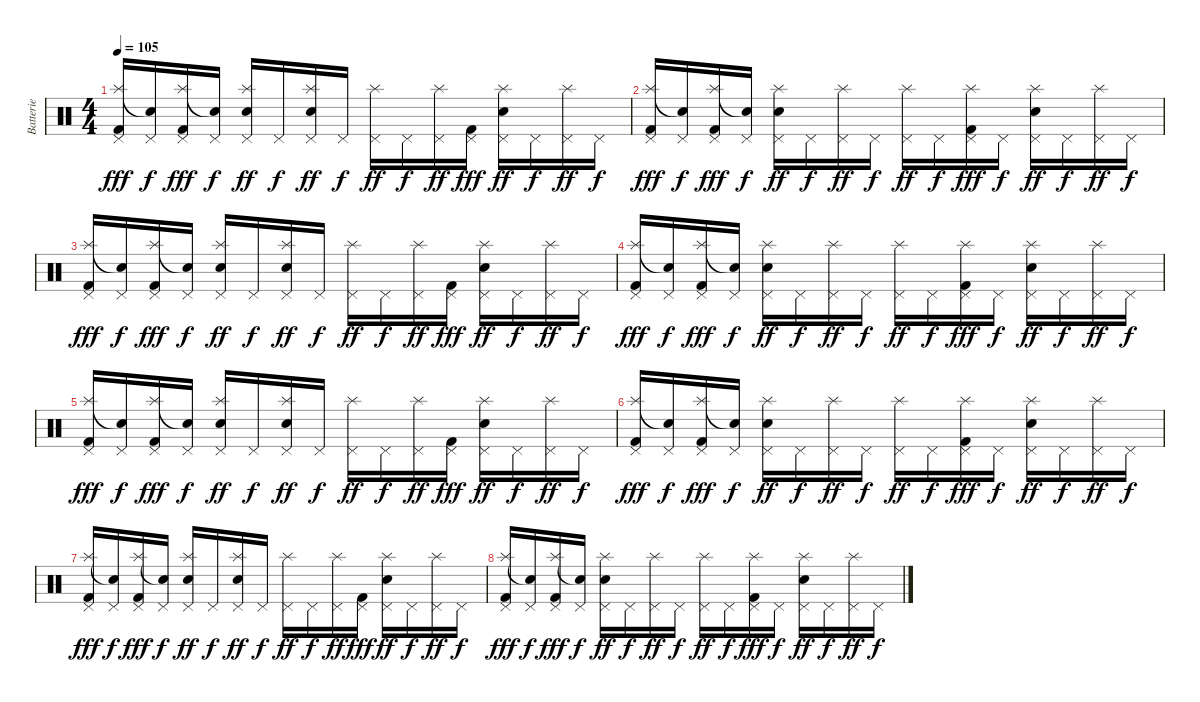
\track ("Batterie" "Batterie") {instrument percussion}
\staff {score}
\articulation defaults
\ts (4 4)
\tempo 105
\clef neutral
\ks c
("Pedal Hi-Hat (hit)" "Splash (hit)" "Kick (hit) 2").16{dy fff} ("Pedal Hi-Hat (hit)" "Snare (hit)"{t}).16{dy f} ("Pedal Hi-Hat (hit)" "Splash (hit)" "Kick (hit) 2").16{dy fff} ("Pedal Hi-Hat (hit)" "Snare (hit)"{t}).16{dy f} ("Pedal Hi-Hat (hit)" "Snare (hit) 2" "Splash (hit)").16{dy ff} "Pedal Hi-Hat (hit)".16{dy f} ("Pedal Hi-Hat (hit)" "Snare (hit) 2" "Splash (hit)").16{dy ff} "Pedal Hi-Hat (hit)".16{dy f} ("Pedal Hi-Hat (hit)" "Splash (hit)").16{dy ff} "Pedal Hi-Hat (hit)".16{dy f} ("Pedal Hi-Hat (hit)" "Splash (hit)").16{dy ff} ("Pedal Hi-Hat (hit)" "Kick (hit) 2").16{dy fff} ("Pedal Hi-Hat (hit)" "Snare (hit) 2" "Splash (hit)").16{dy ff} "Pedal Hi-Hat (hit)".16{dy f} ("Pedal Hi-Hat (hit)" "Splash (hit)").16{dy ff} "Pedal Hi-Hat (hit)".16{dy f} |
("Pedal Hi-Hat (hit)" "Splash (hit)" "Kick (hit) 2").16{dy fff} ("Pedal Hi-Hat (hit)" "Snare (hit)"{t}).16{dy f} ("Pedal Hi-Hat (hit)" "Splash (hit)" "Kick (hit) 2").16{dy fff} ("Pedal Hi-Hat (hit)" "Snare (hit)"{t}).16{dy f} ("Pedal Hi-Hat (hit)" "Snare (hit) 2" "Splash (hit)").16{dy ff} "Pedal Hi-Hat (hit)".16{dy f} ("Pedal Hi-Hat (hit)" "Splash (hit)").16{dy ff} "Pedal Hi-Hat (hit)".16{dy f} ("Pedal Hi-Hat (hit)" "Splash (hit)").16{dy ff} "Pedal Hi-Hat (hit)".16{dy f} ("Pedal Hi-Hat (hit)" "Splash (hit)" "Kick (hit) 2").16{dy fff} "Pedal Hi-Hat (hit)".16{dy f} ("Pedal Hi-Hat (hit)" "Snare (hit) 2" "Splash (hit)").16{dy ff} "Pedal Hi-Hat (hit)".16{dy f} ("Pedal Hi-Hat (hit)" "Splash (hit)").16{dy ff} "Pedal Hi-Hat (hit)".16{dy f} |
("Pedal Hi-Hat (hit)" "Splash (hit)" "Kick (hit) 2").16{dy fff} ("Pedal Hi-Hat (hit)" "Snare (hit)"{t}).16{dy f} ("Pedal Hi-Hat (hit)" "Splash (hit)" "Kick (hit) 2").16{dy fff} ("Pedal Hi-Hat (hit)" "Snare (hit)"{t}).16{dy f} ("Pedal Hi-Hat (hit)" "Snare (hit) 2" "Splash (hit)").16{dy ff} "Pedal Hi-Hat (hit)".16{dy f} ("Pedal Hi-Hat (hit)" "Snare (hit) 2" "Splash (hit)").16{dy ff} "Pedal Hi-Hat (hit)".16{dy f} ("Pedal Hi-Hat (hit)" "Splash (hit)").16{dy ff} "Pedal Hi-Hat (hit)".16{dy f} ("Pedal Hi-Hat (hit)" "Splash (hit)").16{dy ff} ("Pedal Hi-Hat (hit)" "Kick (hit) 2").16{dy fff} ("Pedal Hi-Hat (hit)" "Snare (hit) 2" "Splash (hit)").16{dy ff} "Pedal Hi-Hat (hit)".16{dy f} ("Pedal Hi-Hat (hit)" "Splash (hit)").16{dy ff} "Pedal Hi-Hat (hit)".16{dy f} |
("Pedal Hi-Hat (hit)" "Splash (hit)" "Kick (hit) 2").16{dy fff} ("Pedal Hi-Hat (hit)" "Snare (hit)"{t}).16{dy f} ("Pedal Hi-Hat (hit)" "Splash (hit)" "Kick (hit) 2").16{dy fff} ("Pedal Hi-Hat (hit)" "Snare (hit)"{t}).16{dy f} ("Pedal Hi-Hat (hit)" "Snare (hit) 2" "Splash (hit)").16{dy ff} "Pedal Hi-Hat (hit)".16{dy f} ("Pedal Hi-Hat (hit)" "Splash (hit)").16{dy ff} "Pedal Hi-Hat (hit)".16{dy f} ("Pedal Hi-Hat (hit)" "Splash (hit)").16{dy ff} "Pedal Hi-Hat (hit)".16{dy f} ("Pedal Hi-Hat (hit)" "Splash (hit)" "Kick (hit) 2").16{dy fff} "Pedal Hi-Hat (hit)".16{dy f} ("Pedal Hi-Hat (hit)" "Snare (hit) 2" "Splash (hit)").16{dy ff} "Pedal Hi-Hat (hit)".16{dy f} ("Pedal Hi-Hat (hit)" "Splash (hit)").16{dy ff} "Pedal Hi-Hat (hit)".16{dy f} |
("Pedal Hi-Hat (hit)" "Splash (hit)" "Kick (hit) 2").16{dy fff} ("Pedal Hi-Hat (hit)" "Snare (hit)"{t}).16{dy f} ("Pedal Hi-Hat (hit)" "Splash (hit)" "Kick (hit) 2").16{dy fff} ("Pedal Hi-Hat (hit)" "Snare (hit)"{t}).16{dy f} ("Pedal Hi-Hat (hit)" "Snare (hit) 2" "Splash (hit)").16{dy ff} "Pedal Hi-Hat (hit)".16{dy f} ("Pedal Hi-Hat (hit)" "Snare (hit) 2" "Splash (hit)").16{dy ff} "Pedal Hi-Hat (hit)".16{dy f} ("Pedal Hi-Hat (hit)" "Splash (hit)").16{dy ff} "Pedal Hi-Hat (hit)".16{dy f} ("Pedal Hi-Hat (hit)" "Splash (hit)").16{dy ff} ("Pedal Hi-Hat (hit)" "Kick (hit) 2").16{dy fff} ("Pedal Hi-Hat (hit)" "Snare (hit) 2" "Splash (hit)").16{dy ff} "Pedal Hi-Hat (hit)".16{dy f} ("Pedal Hi-Hat (hit)" "Splash (hit)").16{dy ff} "Pedal Hi-Hat (hit)".16{dy f} |
("Pedal Hi-Hat (hit)" "Splash (hit)" "Kick (hit) 2").16{dy fff} ("Pedal Hi-Hat (hit)" "Snare (hit)"{t}).16{dy f} ("Pedal Hi-Hat (hit)" "Splash (hit)" "Kick (hit) 2").16{dy fff} ("Pedal Hi-Hat (hit)" "Snare (hit)"{t}).16{dy f} ("Pedal Hi-Hat (hit)" "Snare (hit) 2" "Splash (hit)").16{dy ff} "Pedal Hi-Hat (hit)".16{dy f} ("Pedal Hi-Hat (hit)" "Splash (hit)").16{dy ff} "Pedal Hi-Hat (hit)".16{dy f} ("Pedal Hi-Hat (hit)" "Splash (hit)").16{dy ff} "Pedal Hi-Hat (hit)".16{dy f} ("Pedal Hi-Hat (hit)" "Splash (hit)" "Kick (hit) 2").16{dy fff} "Pedal Hi-Hat (hit)".16{dy f} ("Pedal Hi-Hat (hit)" "Snare (hit) 2" "Splash (hit)").16{dy ff} "Pedal Hi-Hat (hit)".16{dy f} ("Pedal Hi-Hat (hit)" "Splash (hit)").16{dy ff} "Pedal Hi-Hat (hit)".16{dy f} |
("Pedal Hi-Hat (hit)" "Splash (hit)" "Kick (hit) 2").16{dy fff} ("Pedal Hi-Hat (hit)" "Snare (hit)"{t}).16{dy f} ("Pedal Hi-Hat (hit)" "Splash (hit)" "Kick (hit) 2").16{dy fff} ("Pedal Hi-Hat (hit)" "Snare (hit)"{t}).16{dy f} ("Pedal Hi-Hat (hit)" "Snare (hit) 2" "Splash (hit)").16{dy ff} "Pedal Hi-Hat (hit)".16{dy f} ("Pedal Hi-Hat (hit)" "Snare (hit) 2" "Splash (hit)").16{dy ff} "Pedal Hi-Hat (hit)".16{dy f} ("Pedal Hi-Hat (hit)" "Splash (hit)").16{dy ff} "Pedal Hi-Hat (hit)".16{dy f} ("Pedal Hi-Hat (hit)" "Splash (hit)").16{dy ff} ("Pedal Hi-Hat (hit)" "Kick (hit) 2").16{dy fff} ("Pedal Hi-Hat (hit)" "Snare (hit) 2" "Splash (hit)").16{dy ff} "Pedal Hi-Hat (hit)".16{dy f} ("Pedal Hi-Hat (hit)" "Splash (hit)").16{dy ff} "Pedal Hi-Hat (hit)".16{dy f} |
("Pedal Hi-Hat (hit)" "Splash (hit)" "Kick (hit) 2").16{dy fff} ("Pedal Hi-Hat (hit)" "Snare (hit)"{t}).16{dy f} ("Pedal Hi-Hat (hit)" "Splash (hit)" "Kick (hit) 2").16{dy fff} ("Pedal Hi-Hat (hit)" "Snare (hit)"{t}).16{dy f} ("Pedal Hi-Hat (hit)" "Snare (hit) 2" "Splash (hit)").16{dy ff} "Pedal Hi-Hat (hit)".16{dy f} ("Pedal Hi-Hat (hit)" "Splash (hit)").16{dy ff} "Pedal Hi-Hat (hit)".16{dy f} ("Pedal Hi-Hat (hit)" "Splash (hit)").16{dy ff} "Pedal Hi-Hat (hit)".16{dy f} ("Pedal Hi-Hat (hit)" "Splash (hit)" "Kick (hit) 2").16{dy fff} "Pedal Hi-Hat (hit)".16{dy f} ("Pedal Hi-Hat (hit)" "Snare (hit) 2" "Splash (hit)").16{dy ff} "Pedal Hi-Hat (hit)".16{dy f} ("Pedal Hi-Hat (hit)" "Splash (hit)").16{dy ff} "Pedal Hi-Hat (hit)".16{dy f}
